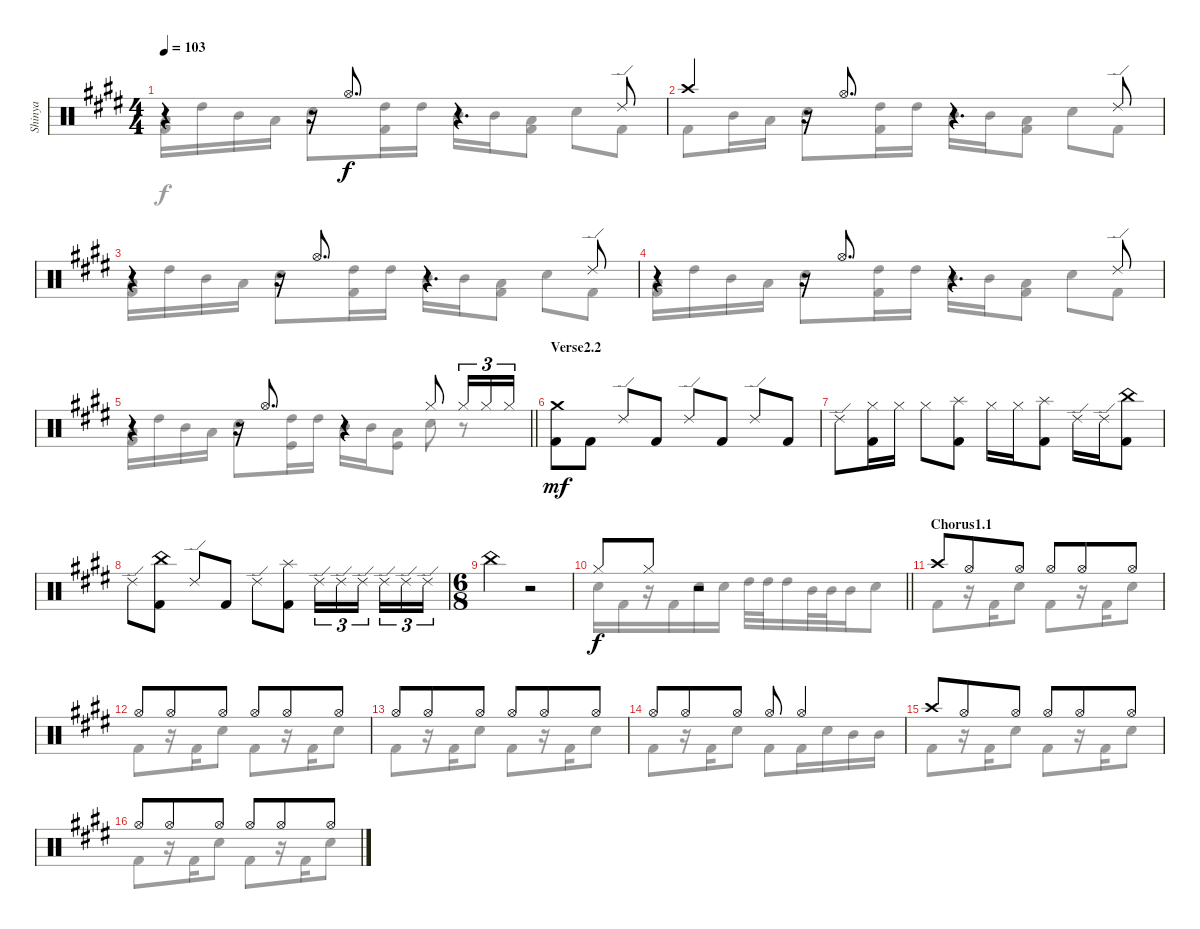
\track ("Shinya" "Shinya") {instrument percussion}
\staff {score}
\articulation defaults
\voice
\ts (4 4)
\tempo 103
\clef neutral
\ks c#minor
r.4{dy f} r.16 "Hi-Hat (open)".8{d} r.4{d} "Ride (edge) 2".8 |
"Crash high (hit)".4 r.16 "Hi-Hat (open)".8{d} r.4{d} "Ride (edge) 2".8 |
r.4 r.16 "Hi-Hat (open)".8{d} r.4{d} "Ride (edge) 2".8 |
r.4 r.16 "Hi-Hat (open)".8{d} r.4{d} "Ride (edge) 2".8 |
\barLineRight lightlight
r.4 r.16 "Hi-Hat (open)".8{d} r.4 "Hi-Hat (closed)".8 "Hi-Hat (closed)".16{tu (3 2)} "Hi-Hat (closed)".16{tu (3 2)} "Hi-Hat (closed)".16{tu (3 2)} |
\section ("" "Verse2.2")
("Crash medium (hit)" "Kick (hit) 2").8{dy mf} "Kick (hit) 2".8 "Ride (edge) 2".8 "Kick (hit) 2".8 "Ride (edge) 2".8 "Kick (hit) 2".8 "Ride (edge) 2".8 "Kick (hit) 2".8 |
"Ride (edge) 2".8 ("Hi-Hat (closed)" "Kick (hit) 2").16 "Hi-Hat (closed)".16 "Hi-Hat (closed)".8 ("Splash (hit)" "Kick (hit) 2").8 "Hi-Hat (closed)".16 "Hi-Hat (closed)".16 ("Splash (hit)" "Kick (hit) 2").8 "Ride (edge) 2".16 "Ride (edge) 2".16 ("China (hit)" "Kick (hit) 2").8 |
"Ride (edge) 2".8 ("China (hit)" "Kick (hit) 2").8 "Ride (edge) 2".8 "Kick (hit) 2".8 "Ride (edge) 2".8 ("Splash (hit)" "Kick (hit) 2").8 "Ride (edge) 2".16{tu (3 2)} "Ride (edge) 2".16{tu (3 2)} "Ride (edge) 2".16{tu (3 2) beam splitsecondary} "Ride (edge) 2".16{tu (3 2)} "Ride (edge) 2".16{tu (3 2)} "Ride (edge) 2".16{tu (3 2)} |
\ts (6 8)
"China (hit)".4 r.2 |
\barLineRight lightlight "Hi-Hat (closed)".8{dy f} "Hi-Hat (closed)".8
r.2 |
\section ("" "Chorus1.1")
"Crash high (hit)".8 "Hi-Hat (open)".8 "Hi-Hat (open)".8 "Hi-Hat (open)".8 "Hi-Hat (open)".8 "Hi-Hat (open)".8 |
"Hi-Hat (open)".8 "Hi-Hat (open)".8 "Hi-Hat (open)".8 "Hi-Hat (open)".8 "Hi-Hat (open)".8 "Hi-Hat (open)".8 |
"Hi-Hat (open)".8 "Hi-Hat (open)".8 "Hi-Hat (open)".8 "Hi-Hat (open)".8 "Hi-Hat (open)".8 "Hi-Hat (open)".8 |
"Hi-Hat (open)".8 "Hi-Hat (open)".8 "Hi-Hat (open)".8 "Hi-Hat (open)".8 "Hi-Hat (open)".4 |
"Crash high (hit)".8 "Hi-Hat (open)".8 "Hi-Hat (open)".8 "Hi-Hat (open)".8 "Hi-Hat (open)".8 "Hi-Hat (open)".8 |
"Hi-Hat (open)".8 "Hi-Hat (open)".8 "Hi-Hat (open)".8 "Hi-Hat (open)".8 "Hi-Hat (open)".8 "Hi-Hat (open)".8
\voice
\clef neutral
\ottava regular
\simile none
\ks c#minor
("Low Tom (hit)" "Kick (hit) 2").16{dy f} "High Tom (hit)".16 "Mid Tom (hit)".16 "Low Tom (hit)".16 "Snare (hit) 2".8 ("High Tom (hit)" "Kick (hit) 2").16 "High Tom (hit)".16 "Mid Tom (hit)".16 "Mid Tom (hit)".16 ("Low Tom (hit)" "Kick (hit) 2").8 "Snare (hit) 2".8 "Kick (hit) 2".8 |
"Kick (hit) 2".8 "Mid Tom (hit)".16 "Low Tom (hit)".16 "Snare (hit) 2".8 ("High Tom (hit)" "Kick (hit) 2").16 "High Tom (hit)".16 "Mid Tom (hit)".16 "Mid Tom (hit)".16 ("Low Tom (hit)" "Kick (hit) 2").8 "Snare (hit) 2".8 "Kick (hit) 2".8 |
("Low Tom (hit)" "Kick (hit) 2").16 "High Tom (hit)".16 "Mid Tom (hit)".16 "Low Tom (hit)".16 "Snare (hit) 2".8 ("High Tom (hit)" "Kick (hit) 2").16 "High Tom (hit)".16 "Mid Tom (hit)".16 "Mid Tom (hit)".16 ("Low Tom (hit)" "Kick (hit) 2").8 "Snare (hit) 2".8 "Kick (hit) 2".8 |
("Low Tom (hit)" "Kick (hit) 2").16 "High Tom (hit)".16 "Mid Tom (hit)".16 "Low Tom (hit)".16 "Snare (hit) 2".8 ("High Tom (hit)" "Kick (hit) 2").16 "High Tom (hit)".16 "Mid Tom (hit)".16 "Mid Tom (hit)".16 ("Low Tom (hit)" "Kick (hit) 2").8 "Snare (hit) 2".8 "Kick (hit) 2".8 |
\barLineRight lightlight
("Low Tom (hit)" "Kick (hit) 2").16 "High Tom (hit)".16 "Mid Tom (hit)".16 "Low Tom (hit)".16 "Snare (hit) 2".8 ("High Tom (hit)" "Kick (hit)").16 "High Tom (hit)".16 "Mid Tom (hit)".16 "Mid Tom (hit)".16 ("Low Tom (hit)" "Kick (hit)").8 "Snare (hit) 2".8 r.8 |
|
|
|
|
\barLineRight lightlight "Snare (hit) 2".16 "Kick (hit) 2".16
r.16 "Kick (hit) 2".16 "Snare (hit) 2".16 "Snare (hit) 2".16 "High Tom (hit)".32 "High Tom (hit)".32 "High Tom (hit)".16 "Mid Tom (hit)".32 "Mid Tom (hit)".32 "Mid Tom (hit)".16 "Snare (hit) 2".8 |
"Kick (hit) 2".8 r.16 "Kick (hit) 2".16 "Snare (hit) 2".8 "Kick (hit) 2".8 r.16 "Kick (hit) 2".16 "Snare (hit) 2".8 |
"Kick (hit) 2".8 r.16 "Kick (hit) 2".16 "Snare (hit) 2".8 "Kick (hit) 2".8 r.16 "Kick (hit) 2".16 "Snare (hit) 2".8 |
"Kick (hit) 2".8 r.16 "Kick (hit) 2".16 "Snare (hit) 2".8 "Kick (hit) 2".8 r.16 "Kick (hit) 2".16 "Snare (hit) 2".8 |
"Kick (hit) 2".8 r.16 "Kick (hit) 2".16 "Snare (hit) 2".8 "Kick (hit) 2".8 "Kick (hit) 2".16 "Snare (hit) 2".16 "Mid Tom (hit)".16 "Mid Tom (hit)".16 |
"Kick (hit) 2".8 r.16 "Kick (hit) 2".16 "Snare (hit) 2".8 "Kick (hit) 2".8 r.16 "Kick (hit) 2".16 "Snare (hit) 2".8 |
"Kick (hit) 2".8 r.16 "Kick (hit) 2".16 "Snare (hit) 2".8 "Kick (hit) 2".8 r.16 "Kick (hit) 2".16 "Snare (hit) 2".8
